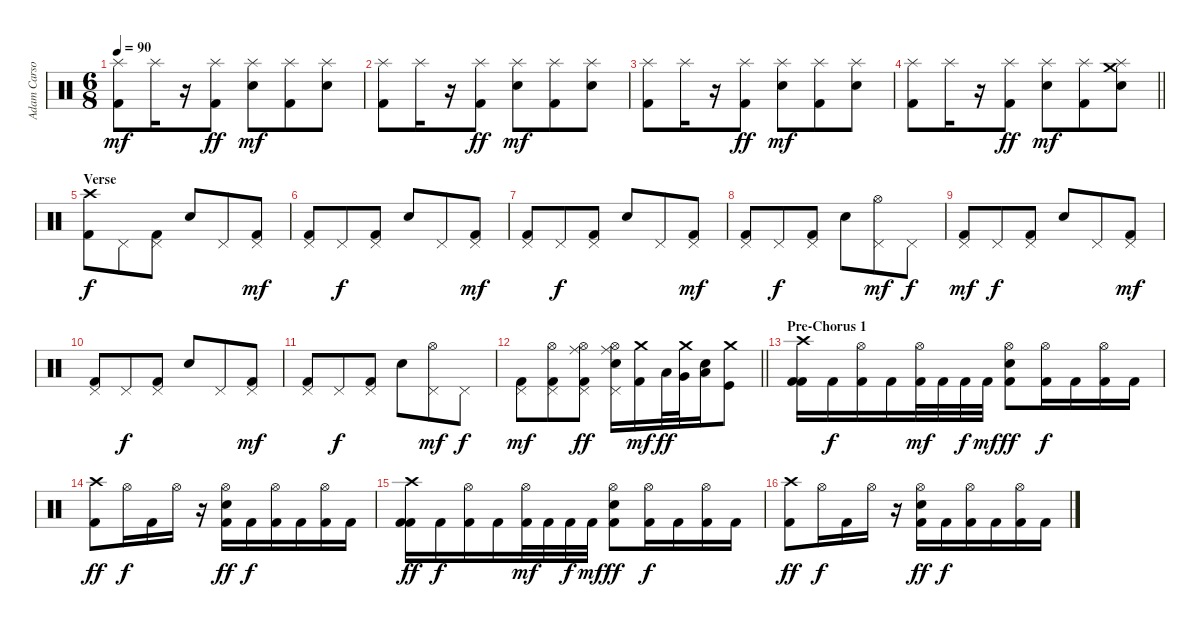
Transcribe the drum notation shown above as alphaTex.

\track ("Adam Carson" "Adam Carso") {instrument percussion}
\staff {score}
\articulation defaults
\ts (6 8)
\tempo 90
\clef neutral
\ks c
("Splash (hit)" "Kick (hit) 2").8{dy mf} "Splash (hit)".16 r.16 ("Splash (hit)" "Kick (hit) 2").8{dy ff} ("Splash (hit)" "Snare (hit) 2").8{dy mf} ("Splash (hit)" "Kick (hit) 2").8 ("Splash (hit)" "Snare (hit) 2").8 |
("Splash (hit)" "Kick (hit) 2").8 "Splash (hit)".16 r.16 ("Splash (hit)" "Kick (hit) 2").8{dy ff} ("Splash (hit)" "Snare (hit) 2").8{dy mf} ("Splash (hit)" "Kick (hit) 2").8 ("Splash (hit)" "Snare (hit) 2").8 |
("Splash (hit)" "Kick (hit) 2").8 "Splash (hit)".16 r.16 ("Splash (hit)" "Kick (hit) 2").8{dy ff} ("Splash (hit)" "Snare (hit) 2").8{dy mf} ("Splash (hit)" "Kick (hit) 2").8 ("Splash (hit)" "Snare (hit) 2").8 |
\barLineRight lightlight
("Splash (hit)" "Kick (hit) 2").8 "Splash (hit)".16 r.16 ("Splash (hit)" "Kick (hit) 2").8{dy ff} ("Splash (hit)" "Snare (hit) 2").8{dy mf} ("Splash (hit)" "Kick (hit) 2").8 ("Splash (hit)" "Crash medium (hit)" "Snare (hit) 2").8 |
\section ("" "Verse")
("Crash high (hit)" "Kick (hit) 2").8{dy f} "Pedal Hi-Hat (hit)".8 ("Pedal Hi-Hat (hit)" "Kick (hit) 2").8 "Snare (hit) 2".8 "Pedal Hi-Hat (hit)".8 ("Pedal Hi-Hat (hit)" "Kick (hit) 2").8{dy mf} |
("Pedal Hi-Hat (hit)" "Kick (hit) 2").8 "Pedal Hi-Hat (hit)".8{dy f} ("Pedal Hi-Hat (hit)" "Kick (hit) 2").8 "Snare (hit) 2".8 "Pedal Hi-Hat (hit)".8 ("Pedal Hi-Hat (hit)" "Kick (hit) 2").8{dy mf} |
("Pedal Hi-Hat (hit)" "Kick (hit) 2").8 "Pedal Hi-Hat (hit)".8{dy f} ("Pedal Hi-Hat (hit)" "Kick (hit) 2").8 "Snare (hit) 2".8 "Pedal Hi-Hat (hit)".8 ("Pedal Hi-Hat (hit)" "Kick (hit) 2").8{dy mf} |
("Pedal Hi-Hat (hit)" "Kick (hit) 2").8 "Pedal Hi-Hat (hit)".8{dy f} ("Pedal Hi-Hat (hit)" "Kick (hit) 2").8 "Snare (hit) 2".8 ("Pedal Hi-Hat (hit)" "Hi-Hat (open)").8{dy mf} "Pedal Hi-Hat (hit)".8{dy f} |
("Pedal Hi-Hat (hit)" "Kick (hit) 2").8{dy mf} "Pedal Hi-Hat (hit)".8{dy f} ("Pedal Hi-Hat (hit)" "Kick (hit) 2").8 "Snare (hit) 2".8 "Pedal Hi-Hat (hit)".8 ("Pedal Hi-Hat (hit)" "Kick (hit) 2").8{dy mf} |
("Pedal Hi-Hat (hit)" "Kick (hit) 2").8 "Pedal Hi-Hat (hit)".8{dy f} ("Pedal Hi-Hat (hit)" "Kick (hit) 2").8 "Snare (hit) 2".8 "Pedal Hi-Hat (hit)".8 ("Pedal Hi-Hat (hit)" "Kick (hit) 2").8{dy mf} |
("Pedal Hi-Hat (hit)" "Kick (hit) 2").8 "Pedal Hi-Hat (hit)".8{dy f} ("Pedal Hi-Hat (hit)" "Kick (hit) 2").8 "Snare (hit) 2".8 ("Pedal Hi-Hat (hit)" "Hi-Hat (open)").8{dy mf} "Pedal Hi-Hat (hit)".8{dy f} |
\barLineRight lightlight
("Pedal Hi-Hat (hit)" "Kick (hit) 2").8{dy mf} ("Hi-Hat (open)" "Pedal Hi-Hat (hit)" "Kick (hit) 2").8 ("Ride (middle)" "Hi-Hat (open)" "Pedal Hi-Hat (hit)" "Kick (hit) 2").8{dy ff} ("Ride (middle)" "Hi-Hat (open)" "Pedal Hi-Hat (hit)" "Snare (hit) 2").16 ("Crash medium (hit)" "Kick (hit) 2").16{dy mf} "Low Floor Tom (hit)".32{dy ff} ("Crash medium (hit)" "Very Low Tom (hit)").32 ("Snare (hit) 2" "Low Tom (hit)").16 ("Crash medium (hit)" "Kick (hit)").8 |
\section ("" "Pre-Chorus 1")
("Crash high (hit)" "Kick (hit) 2" "Kick (hit) 2").16 "Kick (hit) 2".16{dy f} ("Hi-Hat (open)" "Kick (hit) 2").16 "Kick (hit) 2".16 ("Hi-Hat (open)" "Kick (hit) 2").32{dy mf} "Kick (hit) 2".32 "Kick (hit) 2".32{dy f} "Kick (hit) 2".32{dy mf} ("Hi-Hat (open)" "Snare (hit) 2" "Kick (hit) 2").8{dy ff} ("Hi-Hat (open)" "Kick (hit) 2").16{dy f} "Kick (hit) 2".16 ("Hi-Hat (open)" "Kick (hit) 2").16 "Kick (hit) 2".16 |
("Crash high (hit)" "Kick (hit) 2").8{dy ff} "Hi-Hat (open)".16{dy f} "Kick (hit) 2".16 "Hi-Hat (open)".16 r.16 ("Hi-Hat (open)" "Snare (hit) 2" "Kick (hit) 2").16{dy ff} "Kick (hit) 2".16{dy f} ("Hi-Hat (open)" "Kick (hit) 2").16 "Kick (hit) 2".16 ("Hi-Hat (open)" "Kick (hit) 2").16 "Kick (hit) 2".16 |
("Crash high (hit)" "Kick (hit) 2" "Kick (hit) 2").16{dy ff} "Kick (hit) 2".16{dy f} ("Hi-Hat (open)" "Kick (hit) 2").16 "Kick (hit) 2".16 ("Hi-Hat (open)" "Kick (hit) 2").32{dy mf} "Kick (hit) 2".32 "Kick (hit) 2".32{dy f} "Kick (hit) 2".32{dy mf} ("Hi-Hat (open)" "Snare (hit) 2" "Kick (hit) 2").8{dy ff} ("Hi-Hat (open)" "Kick (hit) 2").16{dy f} "Kick (hit) 2".16 ("Hi-Hat (open)" "Kick (hit) 2").16 "Kick (hit) 2".16 |
("Crash high (hit)" "Kick (hit) 2").8{dy ff} "Hi-Hat (open)".16{dy f} "Kick (hit) 2".16 "Hi-Hat (open)".16 r.16 ("Hi-Hat (open)" "Snare (hit) 2" "Kick (hit) 2").16{dy ff} "Kick (hit) 2".16{dy f} ("Hi-Hat (open)" "Kick (hit) 2").16 "Kick (hit) 2".16 ("Hi-Hat (open)" "Kick (hit) 2").16 "Kick (hit) 2".16
